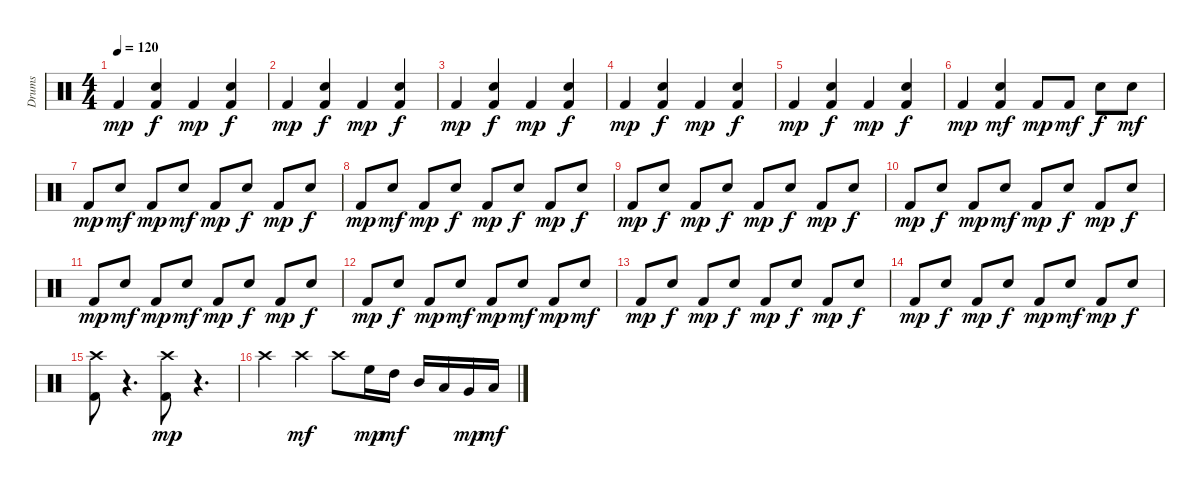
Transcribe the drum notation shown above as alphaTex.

\track ("Drums" "Drums") {instrument percussion}
\staff {score}
\articulation defaults
\ts (4 4)
\tempo 120
\clef neutral
\ks c "Kick (hit) 2".4{dy mp}
("Kick (hit) 2" "Snare (hit) 2").4{dy f} "Kick (hit) 2".4{dy mp} ("Kick (hit) 2" "Snare (hit) 2").4{dy f} |
"Kick (hit) 2".4{dy mp} ("Kick (hit) 2" "Snare (hit) 2").4{dy f} "Kick (hit) 2".4{dy mp} ("Kick (hit) 2" "Snare (hit) 2").4{dy f} |
"Kick (hit) 2".4{dy mp} ("Kick (hit) 2" "Snare (hit) 2").4{dy f} "Kick (hit) 2".4{dy mp} ("Kick (hit) 2" "Snare (hit) 2").4{dy f} |
"Kick (hit) 2".4{dy mp} ("Kick (hit) 2" "Snare (hit) 2").4{dy f} "Kick (hit) 2".4{dy mp} ("Kick (hit) 2" "Snare (hit) 2").4{dy f} |
"Kick (hit) 2".4{dy mp} ("Kick (hit) 2" "Snare (hit) 2").4{dy f} "Kick (hit) 2".4{dy mp} ("Kick (hit) 2" "Snare (hit) 2").4{dy f} |
"Kick (hit) 2".4{dy mp} ("Kick (hit) 2" "Snare (hit) 2").4{dy mf} "Kick (hit) 2".8{dy mp} "Kick (hit) 2".8{dy mf} "Snare (hit) 2".8{dy f} "Snare (hit) 2".8{dy mf} |
"Kick (hit) 2".8{dy mp} "Snare (hit) 2".8{dy mf} "Kick (hit) 2".8{dy mp} "Snare (hit) 2".8{dy mf} "Kick (hit) 2".8{dy mp} "Snare (hit) 2".8{dy f} "Kick (hit) 2".8{dy mp} "Snare (hit) 2".8{dy f} |
"Kick (hit) 2".8{dy mp} "Snare (hit) 2".8{dy mf} "Kick (hit) 2".8{dy mp} "Snare (hit) 2".8{dy f} "Kick (hit) 2".8{dy mp} "Snare (hit) 2".8{dy f} "Kick (hit) 2".8{dy mp} "Snare (hit) 2".8{dy f} |
"Kick (hit) 2".8{dy mp} "Snare (hit) 2".8{dy f} "Kick (hit) 2".8{dy mp} "Snare (hit) 2".8{dy f} "Kick (hit) 2".8{dy mp} "Snare (hit) 2".8{dy f} "Kick (hit) 2".8{dy mp} "Snare (hit) 2".8{dy f} |
"Kick (hit) 2".8{dy mp} "Snare (hit) 2".8{dy f} "Kick (hit) 2".8{dy mp} "Snare (hit) 2".8{dy mf} "Kick (hit) 2".8{dy mp} "Snare (hit) 2".8{dy f} "Kick (hit) 2".8{dy mp} "Snare (hit) 2".8{dy f} |
"Kick (hit) 2".8{dy mp} "Snare (hit) 2".8{dy mf} "Kick (hit) 2".8{dy mp} "Snare (hit) 2".8{dy mf} "Kick (hit) 2".8{dy mp} "Snare (hit) 2".8{dy f} "Kick (hit) 2".8{dy mp} "Snare (hit) 2".8{dy f} |
"Kick (hit) 2".8{dy mp} "Snare (hit) 2".8{dy f} "Kick (hit) 2".8{dy mp} "Snare (hit) 2".8{dy mf} "Kick (hit) 2".8{dy mp} "Snare (hit) 2".8{dy mf} "Kick (hit) 2".8{dy mp} "Snare (hit) 2".8{dy mf} |
"Kick (hit) 2".8{dy mp} "Snare (hit) 2".8{dy f} "Kick (hit) 2".8{dy mp} "Snare (hit) 2".8{dy f} "Kick (hit) 2".8{dy mp} "Snare (hit) 2".8{dy f} "Kick (hit) 2".8{dy mp} "Snare (hit) 2".8{dy f} |
"Kick (hit) 2".8{dy mp} "Snare (hit) 2".8{dy f} "Kick (hit) 2".8{dy mp} "Snare (hit) 2".8{dy f} "Kick (hit) 2".8{dy mp} "Snare (hit) 2".8{dy mf} "Kick (hit) 2".8{dy mp} "Snare (hit) 2".8{dy f} |
("Kick (hit) 2" "Crash high (hit)").8 r.4{d} ("Kick (hit) 2" "Crash high (hit)").8{dy mp} r.4{d} |
"Crash high (hit)".4 "Crash high (hit)".4{dy mf} "Crash high (hit)".8 "High Floor Tom (hit)".16{dy mp} "High Tom (hit)".16{dy mf} "Mid Tom (hit)".16 "Low Tom (hit)".16 "Very Low Tom (hit)".16{dy mp} "Low Floor Tom (hit)".16{dy mf}
